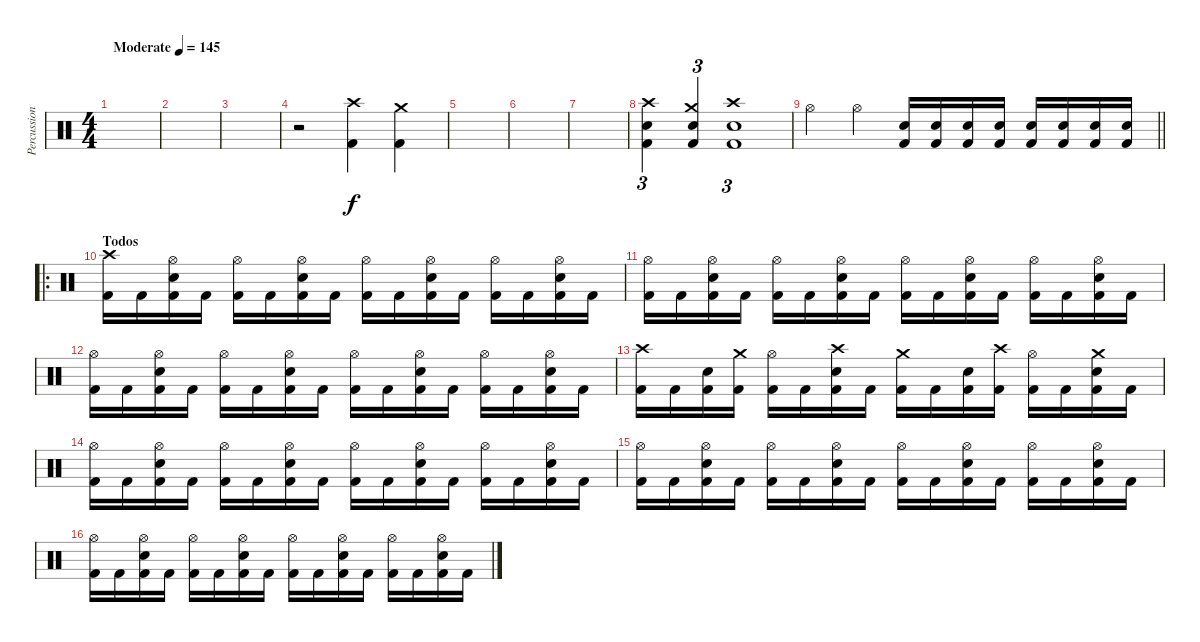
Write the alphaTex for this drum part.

\track ("Percussion" "Percussion") {instrument percussion}
\staff {score}
\articulation defaults
\ts (4 4)
\tempo (145 "Moderate")
\clef neutral
\ks c
|
|
|
r.2 ("Crash high (hit)" "Kick (hit) 2").4 ("Crash medium (hit)" "Kick (hit) 2").4 |
|
|
|
("Crash high (hit)" "Electric Snare (hit)" "Kick (hit) 2").4{tu (3 2)} ("Crash medium (hit)" "Electric Snare (hit)" "Kick (hit) 2").4{tu (3 2)} ("Crash high (hit)" "Electric Snare (hit)" "Kick (hit) 2").1{tu (3 2)} |
\barLineRight lightlight "Hi-Hat (open)".4 "Hi-Hat (open)".4
("Electric Snare (hit)" "Kick (hit) 2").16 ("Electric Snare (hit)" "Kick (hit) 2").16 ("Electric Snare (hit)" "Kick (hit) 2").16 ("Electric Snare (hit)" "Kick (hit) 2").16 ("Electric Snare (hit)" "Kick (hit) 2").16 ("Electric Snare (hit)" "Kick (hit) 2").16 ("Electric Snare (hit)" "Kick (hit) 2").16 ("Electric Snare (hit)" "Kick (hit) 2").16 |
\ro
\section ("" "Todos")
("Crash high (hit)" "Kick (hit) 2").16 "Kick (hit) 2".16 ("Hi-Hat (open)" "Electric Snare (hit)" "Kick (hit) 2").16 "Kick (hit) 2".16 ("Hi-Hat (open)" "Kick (hit) 2").16 "Kick (hit) 2".16 ("Hi-Hat (open)" "Electric Snare (hit)" "Kick (hit) 2").16 "Kick (hit) 2".16 ("Hi-Hat (open)" "Kick (hit) 2").16 "Kick (hit) 2".16 ("Hi-Hat (open)" "Electric Snare (hit)" "Kick (hit) 2").16 "Kick (hit) 2".16 ("Hi-Hat (open)" "Kick (hit) 2").16 "Kick (hit) 2".16 ("Hi-Hat (open)" "Electric Snare (hit)" "Kick (hit) 2").16 "Kick (hit) 2".16 |
("Hi-Hat (open)" "Kick (hit) 2").16 "Kick (hit) 2".16 ("Hi-Hat (open)" "Electric Snare (hit)" "Kick (hit) 2").16 "Kick (hit) 2".16 ("Hi-Hat (open)" "Kick (hit) 2").16 "Kick (hit) 2".16 ("Hi-Hat (open)" "Electric Snare (hit)" "Kick (hit) 2").16 "Kick (hit) 2".16 ("Hi-Hat (open)" "Kick (hit) 2").16 "Kick (hit) 2".16 ("Hi-Hat (open)" "Electric Snare (hit)" "Kick (hit) 2").16 "Kick (hit) 2".16 ("Hi-Hat (open)" "Kick (hit) 2").16 "Kick (hit) 2".16 ("Hi-Hat (open)" "Electric Snare (hit)" "Kick (hit) 2").16 "Kick (hit) 2".16 |
("Hi-Hat (open)" "Kick (hit) 2").16 "Kick (hit) 2".16 ("Hi-Hat (open)" "Electric Snare (hit)" "Kick (hit) 2").16 "Kick (hit) 2".16 ("Hi-Hat (open)" "Kick (hit) 2").16 "Kick (hit) 2".16 ("Hi-Hat (open)" "Electric Snare (hit)" "Kick (hit) 2").16 "Kick (hit) 2".16 ("Hi-Hat (open)" "Kick (hit) 2").16 "Kick (hit) 2".16 ("Hi-Hat (open)" "Electric Snare (hit)" "Kick (hit) 2").16 "Kick (hit) 2".16 ("Hi-Hat (open)" "Kick (hit) 2").16 "Kick (hit) 2".16 ("Hi-Hat (open)" "Electric Snare (hit)" "Kick (hit) 2").16 "Kick (hit) 2".16 |
("Crash high (hit)" "Kick (hit) 2").16 "Kick (hit) 2".16 ("Electric Snare (hit)" "Kick (hit) 2").16 ("Crash medium (hit)" "Kick (hit) 2").16 ("Hi-Hat (open)" "Kick (hit) 2").16 "Kick (hit) 2".16 ("Crash high (hit)" "Electric Snare (hit)" "Kick (hit) 2").16 "Kick (hit) 2".16 ("Crash medium (hit)" "Kick (hit) 2").16 "Kick (hit) 2".16 ("Electric Snare (hit)" "Kick (hit) 2").16 ("Crash high (hit)" "Kick (hit) 2").16 ("Hi-Hat (open)" "Kick (hit) 2").16 "Kick (hit) 2".16 ("Crash medium (hit)" "Electric Snare (hit)" "Kick (hit) 2").16 "Kick (hit) 2".16 |
("Hi-Hat (open)" "Kick (hit) 2").16 "Kick (hit) 2".16 ("Hi-Hat (open)" "Electric Snare (hit)" "Kick (hit) 2").16 "Kick (hit) 2".16 ("Hi-Hat (open)" "Kick (hit) 2").16 "Kick (hit) 2".16 ("Hi-Hat (open)" "Electric Snare (hit)" "Kick (hit) 2").16 "Kick (hit) 2".16 ("Hi-Hat (open)" "Kick (hit) 2").16 "Kick (hit) 2".16 ("Hi-Hat (open)" "Electric Snare (hit)" "Kick (hit) 2").16 "Kick (hit) 2".16 ("Hi-Hat (open)" "Kick (hit) 2").16 "Kick (hit) 2".16 ("Hi-Hat (open)" "Electric Snare (hit)" "Kick (hit) 2").16 "Kick (hit) 2".16 |
("Hi-Hat (open)" "Kick (hit) 2").16 "Kick (hit) 2".16 ("Hi-Hat (open)" "Electric Snare (hit)" "Kick (hit) 2").16 "Kick (hit) 2".16 ("Hi-Hat (open)" "Kick (hit) 2").16 "Kick (hit) 2".16 ("Hi-Hat (open)" "Electric Snare (hit)" "Kick (hit) 2").16 "Kick (hit) 2".16 ("Hi-Hat (open)" "Kick (hit) 2").16 "Kick (hit) 2".16 ("Hi-Hat (open)" "Electric Snare (hit)" "Kick (hit) 2").16 "Kick (hit) 2".16 ("Hi-Hat (open)" "Kick (hit) 2").16 "Kick (hit) 2".16 ("Hi-Hat (open)" "Electric Snare (hit)" "Kick (hit) 2").16 "Kick (hit) 2".16 |
("Hi-Hat (open)" "Kick (hit) 2").16 "Kick (hit) 2".16 ("Hi-Hat (open)" "Electric Snare (hit)" "Kick (hit) 2").16 "Kick (hit) 2".16 ("Hi-Hat (open)" "Kick (hit) 2").16 "Kick (hit) 2".16 ("Hi-Hat (open)" "Electric Snare (hit)" "Kick (hit) 2").16 "Kick (hit) 2".16 ("Hi-Hat (open)" "Kick (hit) 2").16 "Kick (hit) 2".16 ("Hi-Hat (open)" "Electric Snare (hit)" "Kick (hit) 2").16 "Kick (hit) 2".16 ("Hi-Hat (open)" "Kick (hit) 2").16 "Kick (hit) 2".16 ("Hi-Hat (open)" "Electric Snare (hit)" "Kick (hit) 2").16 "Kick (hit) 2".16
